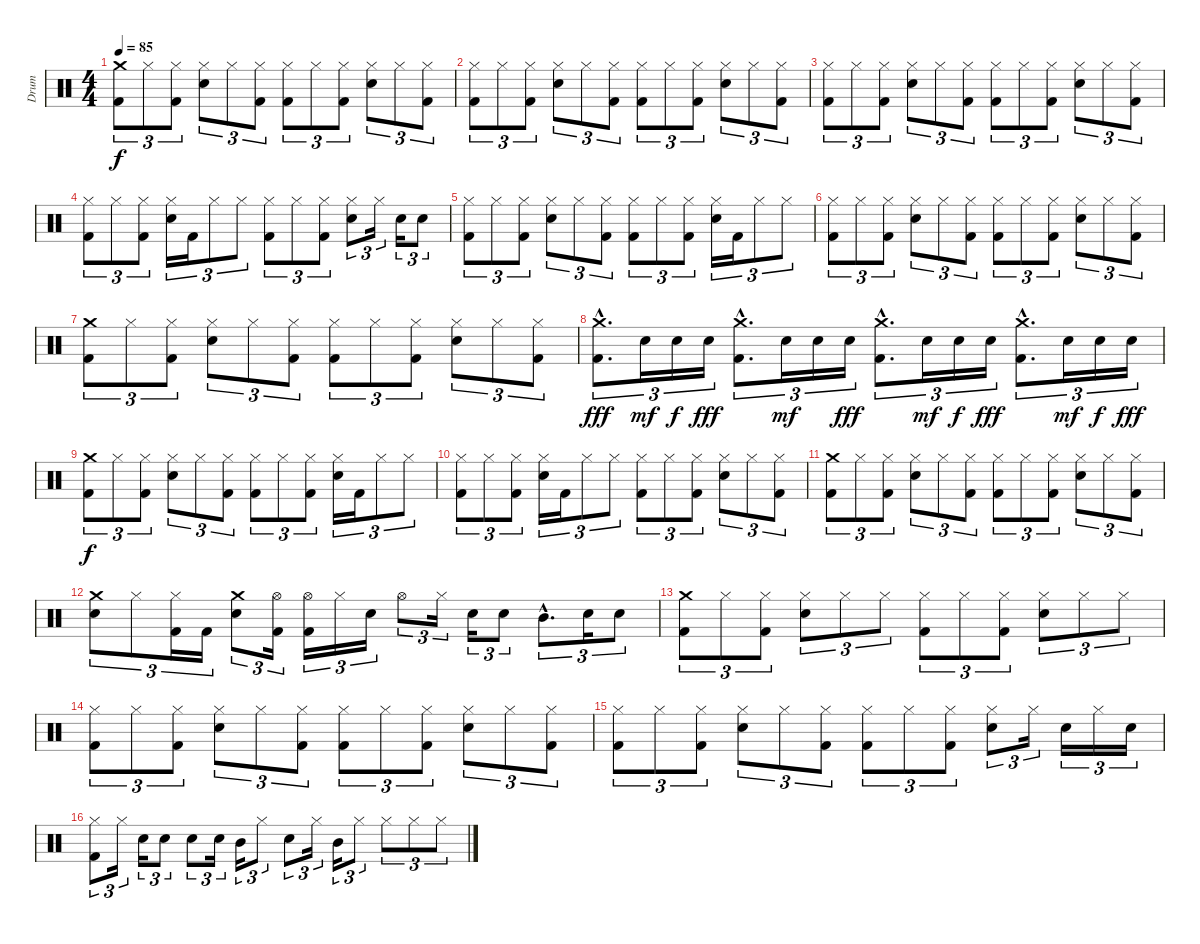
\track ("Drum" "Drum") {instrument percussion}
\staff {score}
\articulation defaults
\ts (4 4)
\tempo 85
\clef neutral
\ks c
("Crash medium (hit)" "Kick (hit) 2").8{tu (3 2) dy f} "Hi-Hat (closed)".8{tu (3 2)} ("Hi-Hat (closed)" "Kick (hit) 2").8{tu (3 2)} ("Hi-Hat (closed)" "Snare (hit) 2").8{tu (3 2)} "Hi-Hat (closed)".8{tu (3 2)} ("Hi-Hat (closed)" "Kick (hit) 2").8{tu (3 2)} ("Hi-Hat (closed)" "Kick (hit) 2").8{tu (3 2)} "Hi-Hat (closed)".8{tu (3 2)} ("Hi-Hat (closed)" "Kick (hit) 2").8{tu (3 2)} ("Hi-Hat (closed)" "Snare (hit) 2").8{tu (3 2)} "Hi-Hat (closed)".8{tu (3 2)} ("Hi-Hat (closed)" "Kick (hit) 2").8{tu (3 2)} |
("Hi-Hat (closed)" "Kick (hit) 2").8{tu (3 2)} "Hi-Hat (closed)".8{tu (3 2)} ("Hi-Hat (closed)" "Kick (hit) 2").8{tu (3 2)} ("Hi-Hat (closed)" "Snare (hit) 2").8{tu (3 2)} "Hi-Hat (closed)".8{tu (3 2)} ("Hi-Hat (closed)" "Kick (hit) 2").8{tu (3 2)} ("Hi-Hat (closed)" "Kick (hit) 2").8{tu (3 2)} "Hi-Hat (closed)".8{tu (3 2)} ("Hi-Hat (closed)" "Kick (hit) 2").8{tu (3 2)} ("Hi-Hat (closed)" "Snare (hit) 2").8{tu (3 2)} "Hi-Hat (closed)".8{tu (3 2)} ("Hi-Hat (closed)" "Kick (hit) 2").8{tu (3 2)} |
("Hi-Hat (closed)" "Kick (hit) 2").8{tu (3 2)} "Hi-Hat (closed)".8{tu (3 2)} ("Hi-Hat (closed)" "Kick (hit) 2").8{tu (3 2)} ("Hi-Hat (closed)" "Snare (hit) 2").8{tu (3 2)} "Hi-Hat (closed)".8{tu (3 2)} ("Hi-Hat (closed)" "Kick (hit) 2").8{tu (3 2)} ("Hi-Hat (closed)" "Kick (hit) 2").8{tu (3 2)} "Hi-Hat (closed)".8{tu (3 2)} ("Hi-Hat (closed)" "Kick (hit) 2").8{tu (3 2)} ("Hi-Hat (closed)" "Snare (hit) 2").8{tu (3 2)} "Hi-Hat (closed)".8{tu (3 2)} ("Hi-Hat (closed)" "Kick (hit) 2").8{tu (3 2)} |
("Hi-Hat (closed)" "Kick (hit) 2").8{tu (3 2)} "Hi-Hat (closed)".8{tu (3 2)} ("Hi-Hat (closed)" "Kick (hit) 2").8{tu (3 2)} ("Hi-Hat (closed)" "Snare (hit) 2").16{tu (3 2)} "Kick (hit) 2".16{tu (3 2)} "Hi-Hat (closed)".8{tu (3 2)} "Hi-Hat (closed)".8{tu (3 2)} ("Hi-Hat (closed)" "Kick (hit) 2").8{tu (3 2)} "Hi-Hat (closed)".8{tu (3 2)} ("Hi-Hat (closed)" "Kick (hit) 2").8{tu (3 2)} ("Hi-Hat (closed)" "Snare (hit) 2").8{tu (3 2)} "Hi-Hat (closed)".16{tu (3 2)} "Snare (hit) 2".16{tu (3 2)} "Snare (hit) 2".8{tu (3 2)} |
("Hi-Hat (closed)" "Kick (hit) 2").8{tu (3 2)} "Hi-Hat (closed)".8{tu (3 2)} ("Hi-Hat (closed)" "Kick (hit) 2").8{tu (3 2)} ("Hi-Hat (closed)" "Snare (hit) 2").8{tu (3 2)} "Hi-Hat (closed)".8{tu (3 2)} ("Hi-Hat (closed)" "Kick (hit) 2").8{tu (3 2)} ("Hi-Hat (closed)" "Kick (hit) 2").8{tu (3 2)} "Hi-Hat (closed)".8{tu (3 2)} ("Hi-Hat (closed)" "Kick (hit) 2").8{tu (3 2)} ("Hi-Hat (closed)" "Snare (hit) 2").16{tu (3 2)} "Kick (hit) 2".16{tu (3 2)} "Hi-Hat (closed)".8{tu (3 2)} "Hi-Hat (closed)".8{tu (3 2)} |
("Hi-Hat (closed)" "Kick (hit) 2").8{tu (3 2)} "Hi-Hat (closed)".8{tu (3 2)} ("Hi-Hat (closed)" "Kick (hit) 2").8{tu (3 2)} ("Hi-Hat (closed)" "Snare (hit) 2").8{tu (3 2)} "Hi-Hat (closed)".8{tu (3 2)} ("Hi-Hat (closed)" "Kick (hit) 2").8{tu (3 2)} ("Hi-Hat (closed)" "Kick (hit) 2").8{tu (3 2)} "Hi-Hat (closed)".8{tu (3 2)} ("Hi-Hat (closed)" "Kick (hit) 2").8{tu (3 2)} ("Hi-Hat (closed)" "Snare (hit) 2").8{tu (3 2)} "Hi-Hat (closed)".8{tu (3 2)} ("Hi-Hat (closed)" "Kick (hit) 2").8{tu (3 2)} |
("Crash medium (hit)" "Kick (hit) 2").8{tu (3 2)} "Hi-Hat (closed)".8{tu (3 2)} ("Hi-Hat (closed)" "Kick (hit) 2").8{tu (3 2)} ("Hi-Hat (closed)" "Snare (hit) 2").8{tu (3 2)} "Hi-Hat (closed)".8{tu (3 2)} ("Hi-Hat (closed)" "Kick (hit) 2").8{tu (3 2)} ("Hi-Hat (closed)" "Kick (hit) 2").8{tu (3 2)} "Hi-Hat (closed)".8{tu (3 2)} ("Hi-Hat (closed)" "Kick (hit) 2").8{tu (3 2)} ("Hi-Hat (closed)" "Snare (hit) 2").8{tu (3 2)} "Hi-Hat (closed)".8{tu (3 2)} ("Hi-Hat (closed)" "Kick (hit) 2").8{tu (3 2)} |
("Crash medium (hit)"{hac} "Kick (hit) 2"{hac}).8{d tu (3 2) dy fff} "Snare (hit) 2".16{tu (3 2) dy mf} "Snare (hit) 2".16{tu (3 2) dy f} "Snare (hit) 2".16{tu (3 2) dy fff} ("Crash medium (hit)"{hac} "Kick (hit) 2"{hac}).8{d tu (3 2)} "Snare (hit) 2".16{tu (3 2) dy mf} "Snare (hit) 2".16{tu (3 2)} "Snare (hit) 2".16{tu (3 2) dy fff} ("Crash medium (hit)"{hac} "Kick (hit) 2"{hac}).8{d tu (3 2)} "Snare (hit) 2".16{tu (3 2) dy mf} "Snare (hit) 2".16{tu (3 2) dy f} "Snare (hit) 2".16{tu (3 2) dy fff} ("Crash medium (hit)"{hac} "Kick (hit) 2"{hac}).8{d tu (3 2)} "Snare (hit) 2".16{tu (3 2) dy mf} "Snare (hit) 2".16{tu (3 2) dy f} "Snare (hit) 2".16{tu (3 2) dy fff} |
("Crash medium (hit)" "Kick (hit) 2").8{tu (3 2) dy f} "Hi-Hat (closed)".8{tu (3 2)} ("Hi-Hat (closed)" "Kick (hit) 2").8{tu (3 2)} ("Hi-Hat (closed)" "Snare (hit) 2").8{tu (3 2)} "Hi-Hat (closed)".8{tu (3 2)} ("Hi-Hat (closed)" "Kick (hit) 2").8{tu (3 2)} ("Hi-Hat (closed)" "Kick (hit) 2").8{tu (3 2)} "Hi-Hat (closed)".8{tu (3 2)} ("Hi-Hat (closed)" "Kick (hit) 2").8{tu (3 2)} ("Hi-Hat (closed)" "Snare (hit) 2").16{tu (3 2)} "Kick (hit) 2".16{tu (3 2)} "Hi-Hat (closed)".8{tu (3 2)} "Hi-Hat (closed)".8{tu (3 2)} |
("Hi-Hat (closed)" "Kick (hit) 2").8{tu (3 2)} "Hi-Hat (closed)".8{tu (3 2)} ("Hi-Hat (closed)" "Kick (hit) 2").8{tu (3 2)} ("Hi-Hat (closed)" "Snare (hit) 2").16{tu (3 2)} "Kick (hit) 2".16{tu (3 2)} "Hi-Hat (closed)".8{tu (3 2)} "Hi-Hat (closed)".8{tu (3 2)} ("Hi-Hat (closed)" "Kick (hit) 2").8{tu (3 2)} "Hi-Hat (closed)".8{tu (3 2)} ("Hi-Hat (closed)" "Kick (hit) 2").8{tu (3 2)} ("Hi-Hat (closed)" "Snare (hit) 2").8{tu (3 2)} "Hi-Hat (closed)".8{tu (3 2)} ("Hi-Hat (closed)" "Kick (hit) 2").8{tu (3 2)} |
("Crash medium (hit)" "Kick (hit) 2").8{tu (3 2)} "Hi-Hat (closed)".8{tu (3 2)} ("Hi-Hat (closed)" "Kick (hit) 2").8{tu (3 2)} ("Hi-Hat (closed)" "Snare (hit) 2").8{tu (3 2)} "Hi-Hat (closed)".8{tu (3 2)} ("Hi-Hat (closed)" "Kick (hit) 2").8{tu (3 2)} ("Hi-Hat (closed)" "Kick (hit) 2").8{tu (3 2)} "Hi-Hat (closed)".8{tu (3 2)} ("Hi-Hat (closed)" "Kick (hit) 2").8{tu (3 2)} ("Hi-Hat (closed)" "Snare (hit) 2").8{tu (3 2)} "Hi-Hat (closed)".8{tu (3 2)} ("Hi-Hat (closed)" "Kick (hit) 2").8{tu (3 2)} |
("Crash medium (hit)" "Snare (hit) 2").8{tu (3 2)} "Hi-Hat (closed)".8{tu (3 2)} ("Hi-Hat (closed)" "Kick (hit) 2").16{tu (3 2)} "Kick (hit) 2".16{tu (3 2)} ("Crash medium (hit)" "Snare (hit) 2").8{tu (3 2)} ("Hi-Hat (open)" "Kick (hit) 2").16{tu (3 2)} ("Hi-Hat (open)" "Kick (hit) 2").16{tu (3 2)} "Hi-Hat (closed)".16{tu (3 2)} "Snare (hit) 2".16{tu (3 2)} "Hi-Hat (open)".8{tu (3 2)} "Hi-Hat (closed)".16{tu (3 2)} "Snare (hit) 2".16{tu (3 2)} "Snare (hit) 2".8{tu (3 2)} "Mid Tom (hit)"{hac}.8{d tu (3 2)} "Snare (hit) 2".16{tu (3 2)} "Snare (hit) 2".8{tu (3 2)} |
("Crash medium (hit)" "Kick (hit) 2").8{tu (3 2)} "Hi-Hat (closed)".8{tu (3 2)} ("Hi-Hat (closed)" "Kick (hit) 2").8{tu (3 2)} ("Hi-Hat (closed)" "Snare (hit) 2").8{tu (3 2)} "Hi-Hat (closed)".8{tu (3 2)} "Hi-Hat (closed)".8{tu (3 2)} ("Hi-Hat (closed)" "Kick (hit) 2").8{tu (3 2)} "Hi-Hat (closed)".8{tu (3 2)} ("Hi-Hat (closed)" "Kick (hit) 2").8{tu (3 2)} ("Hi-Hat (closed)" "Snare (hit) 2").8{tu (3 2)} "Hi-Hat (closed)".8{tu (3 2)} "Hi-Hat (closed)".8{tu (3 2)} |
("Hi-Hat (closed)" "Kick (hit) 2").8{tu (3 2)} "Hi-Hat (closed)".8{tu (3 2)} ("Hi-Hat (closed)" "Kick (hit) 2").8{tu (3 2)} ("Hi-Hat (closed)" "Snare (hit) 2").8{tu (3 2)} "Hi-Hat (closed)".8{tu (3 2)} ("Hi-Hat (closed)" "Kick (hit) 2").8{tu (3 2)} ("Hi-Hat (closed)" "Kick (hit) 2").8{tu (3 2)} "Hi-Hat (closed)".8{tu (3 2)} ("Hi-Hat (closed)" "Kick (hit) 2").8{tu (3 2)} ("Hi-Hat (closed)" "Snare (hit) 2").8{tu (3 2)} "Hi-Hat (closed)".8{tu (3 2)} ("Hi-Hat (closed)" "Kick (hit) 2").8{tu (3 2)} |
("Hi-Hat (closed)" "Kick (hit) 2").8{tu (3 2)} "Hi-Hat (closed)".8{tu (3 2)} ("Hi-Hat (closed)" "Kick (hit) 2").8{tu (3 2)} ("Hi-Hat (closed)" "Snare (hit) 2").8{tu (3 2)} "Hi-Hat (closed)".8{tu (3 2)} ("Hi-Hat (closed)" "Kick (hit) 2").8{tu (3 2)} ("Hi-Hat (closed)" "Kick (hit) 2").8{tu (3 2)} "Hi-Hat (closed)".8{tu (3 2)} ("Hi-Hat (closed)" "Kick (hit) 2").8{tu (3 2)} ("Hi-Hat (closed)" "Snare (hit) 2").8{tu (3 2)} "Hi-Hat (closed)".16{tu (3 2)} "Snare (hit) 2".16{tu (3 2)} "Hi-Hat (closed)".16{tu (3 2)} "Snare (hit) 2".16{tu (3 2)} |
("Hi-Hat (closed)" "Kick (hit) 2").8{tu (3 2)} "Hi-Hat (closed)".16{tu (3 2)} "Snare (hit) 2".16{tu (3 2)} "Snare (hit) 2".8{tu (3 2)} "Snare (hit) 2".8{tu (3 2)} "Snare (hit) 2".16{tu (3 2)} "Mid Tom (hit)".16{tu (3 2)} "Hi-Hat (closed)".8{tu (3 2)} "Snare (hit) 2".8{tu (3 2)} "Hi-Hat (closed)".16{tu (3 2)} "Mid Tom (hit)".16{tu (3 2)} "Hi-Hat (closed)".8{tu (3 2)} "Hi-Hat (closed)".8{tu (3 2)} "Hi-Hat (closed)".8{tu (3 2)} "Hi-Hat (closed)".8{tu (3 2)}
